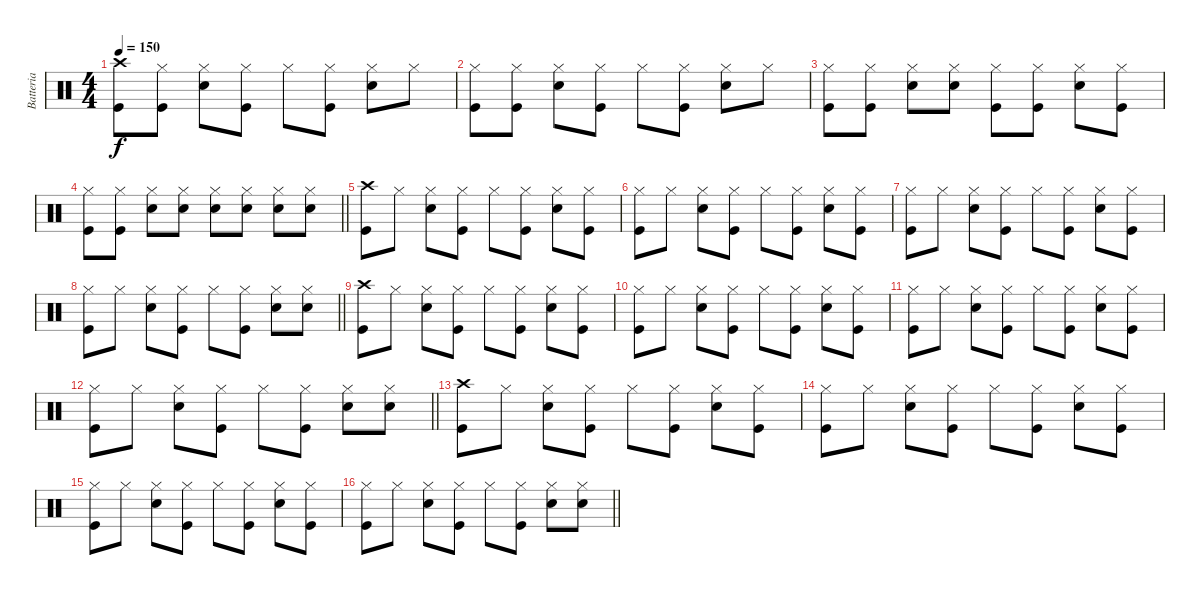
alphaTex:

\track ("Batteria" "Batteria") {instrument percussion}
\staff {score}
\articulation defaults
\ts (4 4)
\tempo 150
\clef neutral
\ks c
("Kick (hit)" "Crash high (hit)").8{dy f} ("Kick (hit)" "Hi-Hat (closed)").8 ("Snare (hit) 2" "Hi-Hat (closed)").8 ("Kick (hit)" "Hi-Hat (closed)").8 "Hi-Hat (closed)".8 ("Kick (hit)" "Hi-Hat (closed)").8 ("Snare (hit) 2" "Hi-Hat (closed)").8 "Hi-Hat (closed)".8 |
("Kick (hit)" "Hi-Hat (closed)").8 ("Kick (hit)" "Hi-Hat (closed)").8 ("Snare (hit) 2" "Hi-Hat (closed)").8 ("Kick (hit)" "Hi-Hat (closed)").8 "Hi-Hat (closed)".8 ("Kick (hit)" "Hi-Hat (closed)").8 ("Snare (hit) 2" "Hi-Hat (closed)").8 "Hi-Hat (closed)".8 |
("Kick (hit)" "Hi-Hat (closed)").8 ("Kick (hit)" "Hi-Hat (closed)").8 ("Snare (hit) 2" "Hi-Hat (closed)").8 ("Snare (hit) 2" "Hi-Hat (closed)").8 ("Hi-Hat (closed)" "Kick (hit)").8 ("Kick (hit)" "Hi-Hat (closed)").8 ("Snare (hit) 2" "Hi-Hat (closed)").8 ("Hi-Hat (closed)" "Kick (hit)").8 |
\barLineRight lightlight
("Kick (hit)" "Hi-Hat (closed)").8 ("Kick (hit)" "Hi-Hat (closed)").8 ("Snare (hit) 2" "Hi-Hat (closed)").8 ("Snare (hit) 2" "Hi-Hat (closed)").8 ("Snare (hit) 2" "Hi-Hat (closed)").8 ("Snare (hit) 2" "Hi-Hat (closed)").8 ("Snare (hit) 2" "Hi-Hat (closed)").8 ("Snare (hit) 2" "Hi-Hat (closed)").8 |
("Kick (hit)" "Crash high (hit)").8 "Hi-Hat (closed)".8 ("Snare (hit) 2" "Hi-Hat (closed)").8 ("Kick (hit)" "Hi-Hat (closed)").8 "Hi-Hat (closed)".8 ("Kick (hit)" "Hi-Hat (closed)").8 ("Snare (hit) 2" "Hi-Hat (closed)").8 ("Kick (hit)" "Hi-Hat (closed)").8 |
("Kick (hit)" "Hi-Hat (closed)").8 "Hi-Hat (closed)".8 ("Snare (hit) 2" "Hi-Hat (closed)").8 ("Kick (hit)" "Hi-Hat (closed)").8 "Hi-Hat (closed)".8 ("Kick (hit)" "Hi-Hat (closed)").8 ("Snare (hit) 2" "Hi-Hat (closed)").8 ("Kick (hit)" "Hi-Hat (closed)").8 |
("Kick (hit)" "Hi-Hat (closed)").8 "Hi-Hat (closed)".8 ("Snare (hit) 2" "Hi-Hat (closed)").8 ("Kick (hit)" "Hi-Hat (closed)").8 "Hi-Hat (closed)".8 ("Kick (hit)" "Hi-Hat (closed)").8 ("Snare (hit) 2" "Hi-Hat (closed)").8 ("Kick (hit)" "Hi-Hat (closed)").8 |
\barLineRight lightlight
("Kick (hit)" "Hi-Hat (closed)").8 "Hi-Hat (closed)".8 ("Snare (hit) 2" "Hi-Hat (closed)").8 ("Kick (hit)" "Hi-Hat (closed)").8 "Hi-Hat (closed)".8 ("Kick (hit)" "Hi-Hat (closed)").8 ("Snare (hit) 2" "Hi-Hat (closed)").8 ("Hi-Hat (closed)" "Snare (hit) 2").8 |
("Kick (hit)" "Crash high (hit)").8 "Hi-Hat (closed)".8 ("Snare (hit) 2" "Hi-Hat (closed)").8 ("Kick (hit)" "Hi-Hat (closed)").8 "Hi-Hat (closed)".8 ("Kick (hit)" "Hi-Hat (closed)").8 ("Snare (hit) 2" "Hi-Hat (closed)").8 ("Kick (hit)" "Hi-Hat (closed)").8 |
("Kick (hit)" "Hi-Hat (closed)").8 "Hi-Hat (closed)".8 ("Snare (hit) 2" "Hi-Hat (closed)").8 ("Kick (hit)" "Hi-Hat (closed)").8 "Hi-Hat (closed)".8 ("Kick (hit)" "Hi-Hat (closed)").8 ("Snare (hit) 2" "Hi-Hat (closed)").8 ("Kick (hit)" "Hi-Hat (closed)").8 |
("Kick (hit)" "Hi-Hat (closed)").8 "Hi-Hat (closed)".8 ("Snare (hit) 2" "Hi-Hat (closed)").8 ("Kick (hit)" "Hi-Hat (closed)").8 "Hi-Hat (closed)".8 ("Kick (hit)" "Hi-Hat (closed)").8 ("Snare (hit) 2" "Hi-Hat (closed)").8 ("Kick (hit)" "Hi-Hat (closed)").8 |
\barLineRight lightlight
("Kick (hit)" "Hi-Hat (closed)").8 "Hi-Hat (closed)".8 ("Snare (hit) 2" "Hi-Hat (closed)").8 ("Kick (hit)" "Hi-Hat (closed)").8 "Hi-Hat (closed)".8 ("Kick (hit)" "Hi-Hat (closed)").8 ("Snare (hit) 2" "Hi-Hat (closed)").8 ("Hi-Hat (closed)" "Snare (hit) 2").8 |
("Kick (hit)" "Crash high (hit)").8 "Hi-Hat (closed)".8 ("Snare (hit) 2" "Hi-Hat (closed)").8 ("Kick (hit)" "Hi-Hat (closed)").8 "Hi-Hat (closed)".8 ("Kick (hit)" "Hi-Hat (closed)").8 ("Snare (hit) 2" "Hi-Hat (closed)").8 ("Kick (hit)" "Hi-Hat (closed)").8 |
("Kick (hit)" "Hi-Hat (closed)").8 "Hi-Hat (closed)".8 ("Snare (hit) 2" "Hi-Hat (closed)").8 ("Kick (hit)" "Hi-Hat (closed)").8 "Hi-Hat (closed)".8 ("Kick (hit)" "Hi-Hat (closed)").8 ("Snare (hit) 2" "Hi-Hat (closed)").8 ("Kick (hit)" "Hi-Hat (closed)").8 |
("Kick (hit)" "Hi-Hat (closed)").8 "Hi-Hat (closed)".8 ("Snare (hit) 2" "Hi-Hat (closed)").8 ("Kick (hit)" "Hi-Hat (closed)").8 "Hi-Hat (closed)".8 ("Kick (hit)" "Hi-Hat (closed)").8 ("Snare (hit) 2" "Hi-Hat (closed)").8 ("Kick (hit)" "Hi-Hat (closed)").8 |
\barLineRight lightlight
("Kick (hit)" "Hi-Hat (closed)").8 "Hi-Hat (closed)".8 ("Snare (hit) 2" "Hi-Hat (closed)").8 ("Kick (hit)" "Hi-Hat (closed)").8 "Hi-Hat (closed)".8 ("Kick (hit)" "Hi-Hat (closed)").8 ("Snare (hit) 2" "Hi-Hat (closed)").8 ("Hi-Hat (closed)" "Snare (hit) 2").8
